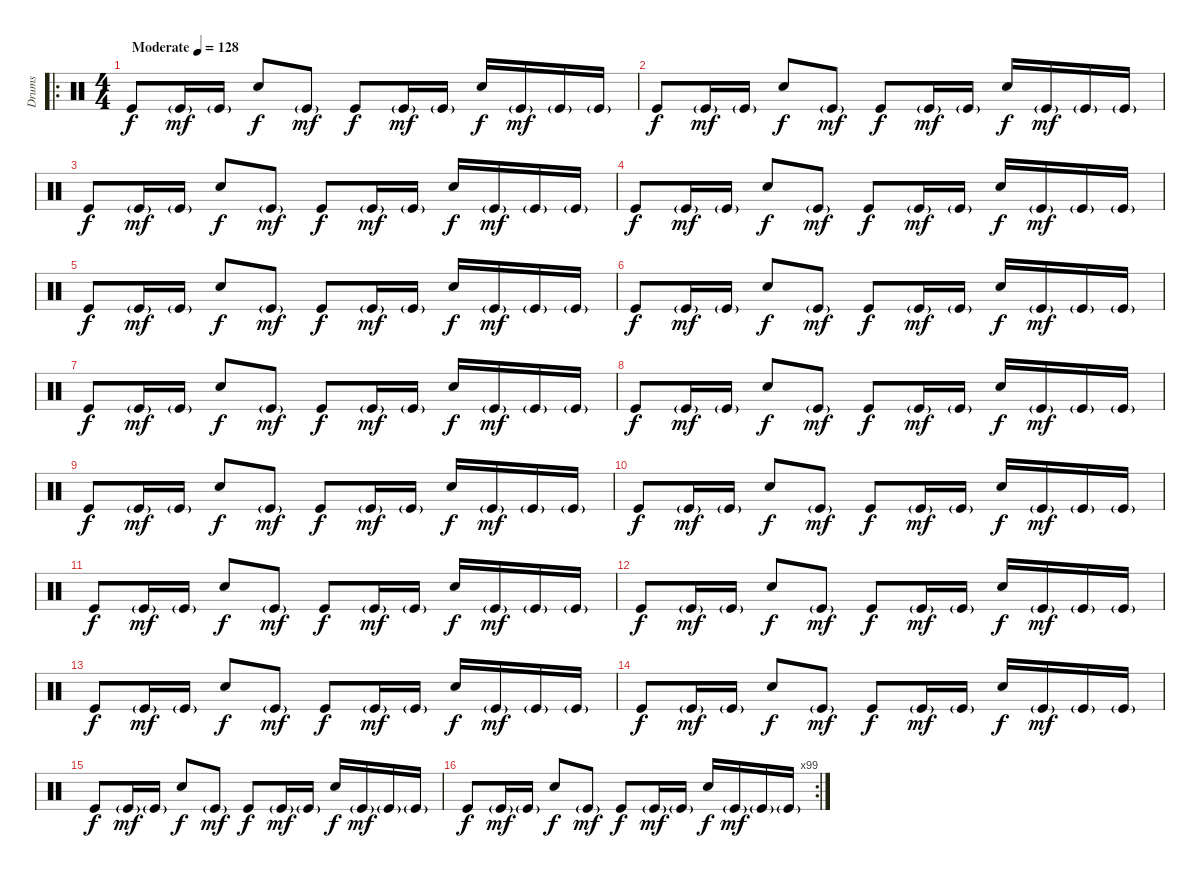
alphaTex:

\track ("Drums" "Drums") {instrument percussion}
\staff {score}
\articulation defaults
\ro
\ts (4 4)
\tempo (128 "Moderate")
\clef neutral
\ks c "Kick (hit)".8{dy f} "Kick (hit)"{g}.16{dy mf} "Kick (hit)"{g}.16 "Snare (hit) 2".8{dy f} "Kick (hit)"{g}.8{dy mf} "Kick (hit)".8{dy f} "Kick (hit)"{g}.16{dy mf} "Kick (hit)"{g}.16 "Snare (hit) 2".16{dy f} "Kick (hit)"{g}.16{dy mf} "Kick (hit)"{g}.16 "Kick (hit)"{g}.16
|
"Kick (hit)".8{dy f} "Kick (hit)"{g}.16{dy mf} "Kick (hit)"{g}.16 "Snare (hit) 2".8{dy f} "Kick (hit)"{g}.8{dy mf} "Kick (hit)".8{dy f} "Kick (hit)"{g}.16{dy mf} "Kick (hit)"{g}.16 "Snare (hit) 2".16{dy f} "Kick (hit)"{g}.16{dy mf} "Kick (hit)"{g}.16 "Kick (hit)"{g}.16 |
"Kick (hit)".8{dy f} "Kick (hit)"{g}.16{dy mf} "Kick (hit)"{g}.16 "Snare (hit) 2".8{dy f} "Kick (hit)"{g}.8{dy mf} "Kick (hit)".8{dy f} "Kick (hit)"{g}.16{dy mf} "Kick (hit)"{g}.16 "Snare (hit) 2".16{dy f} "Kick (hit)"{g}.16{dy mf} "Kick (hit)"{g}.16 "Kick (hit)"{g}.16 |
"Kick (hit)".8{dy f} "Kick (hit)"{g}.16{dy mf} "Kick (hit)"{g}.16 "Snare (hit) 2".8{dy f} "Kick (hit)"{g}.8{dy mf} "Kick (hit)".8{dy f} "Kick (hit)"{g}.16{dy mf} "Kick (hit)"{g}.16 "Snare (hit) 2".16{dy f} "Kick (hit)"{g}.16{dy mf} "Kick (hit)"{g}.16 "Kick (hit)"{g}.16 |
"Kick (hit)".8{dy f} "Kick (hit)"{g}.16{dy mf} "Kick (hit)"{g}.16 "Snare (hit) 2".8{dy f} "Kick (hit)"{g}.8{dy mf} "Kick (hit)".8{dy f} "Kick (hit)"{g}.16{dy mf} "Kick (hit)"{g}.16 "Snare (hit) 2".16{dy f} "Kick (hit)"{g}.16{dy mf} "Kick (hit)"{g}.16 "Kick (hit)"{g}.16 |
"Kick (hit)".8{dy f} "Kick (hit)"{g}.16{dy mf} "Kick (hit)"{g}.16 "Snare (hit) 2".8{dy f} "Kick (hit)"{g}.8{dy mf} "Kick (hit)".8{dy f} "Kick (hit)"{g}.16{dy mf} "Kick (hit)"{g}.16 "Snare (hit) 2".16{dy f} "Kick (hit)"{g}.16{dy mf} "Kick (hit)"{g}.16 "Kick (hit)"{g}.16 |
"Kick (hit)".8{dy f} "Kick (hit)"{g}.16{dy mf} "Kick (hit)"{g}.16 "Snare (hit) 2".8{dy f} "Kick (hit)"{g}.8{dy mf} "Kick (hit)".8{dy f} "Kick (hit)"{g}.16{dy mf} "Kick (hit)"{g}.16 "Snare (hit) 2".16{dy f} "Kick (hit)"{g}.16{dy mf} "Kick (hit)"{g}.16 "Kick (hit)"{g}.16 |
"Kick (hit)".8{dy f} "Kick (hit)"{g}.16{dy mf} "Kick (hit)"{g}.16 "Snare (hit) 2".8{dy f} "Kick (hit)"{g}.8{dy mf} "Kick (hit)".8{dy f} "Kick (hit)"{g}.16{dy mf} "Kick (hit)"{g}.16 "Snare (hit) 2".16{dy f} "Kick (hit)"{g}.16{dy mf} "Kick (hit)"{g}.16 "Kick (hit)"{g}.16 |
"Kick (hit)".8{dy f} "Kick (hit)"{g}.16{dy mf} "Kick (hit)"{g}.16 "Snare (hit) 2".8{dy f} "Kick (hit)"{g}.8{dy mf} "Kick (hit)".8{dy f} "Kick (hit)"{g}.16{dy mf} "Kick (hit)"{g}.16 "Snare (hit) 2".16{dy f} "Kick (hit)"{g}.16{dy mf} "Kick (hit)"{g}.16 "Kick (hit)"{g}.16 |
"Kick (hit)".8{dy f} "Kick (hit)"{g}.16{dy mf} "Kick (hit)"{g}.16 "Snare (hit) 2".8{dy f} "Kick (hit)"{g}.8{dy mf} "Kick (hit)".8{dy f} "Kick (hit)"{g}.16{dy mf} "Kick (hit)"{g}.16 "Snare (hit) 2".16{dy f} "Kick (hit)"{g}.16{dy mf} "Kick (hit)"{g}.16 "Kick (hit)"{g}.16 |
"Kick (hit)".8{dy f} "Kick (hit)"{g}.16{dy mf} "Kick (hit)"{g}.16 "Snare (hit) 2".8{dy f} "Kick (hit)"{g}.8{dy mf} "Kick (hit)".8{dy f} "Kick (hit)"{g}.16{dy mf} "Kick (hit)"{g}.16 "Snare (hit) 2".16{dy f} "Kick (hit)"{g}.16{dy mf} "Kick (hit)"{g}.16 "Kick (hit)"{g}.16 |
"Kick (hit)".8{dy f} "Kick (hit)"{g}.16{dy mf} "Kick (hit)"{g}.16 "Snare (hit) 2".8{dy f} "Kick (hit)"{g}.8{dy mf} "Kick (hit)".8{dy f} "Kick (hit)"{g}.16{dy mf} "Kick (hit)"{g}.16 "Snare (hit) 2".16{dy f} "Kick (hit)"{g}.16{dy mf} "Kick (hit)"{g}.16 "Kick (hit)"{g}.16 |
"Kick (hit)".8{dy f} "Kick (hit)"{g}.16{dy mf} "Kick (hit)"{g}.16 "Snare (hit) 2".8{dy f} "Kick (hit)"{g}.8{dy mf} "Kick (hit)".8{dy f} "Kick (hit)"{g}.16{dy mf} "Kick (hit)"{g}.16 "Snare (hit) 2".16{dy f} "Kick (hit)"{g}.16{dy mf} "Kick (hit)"{g}.16 "Kick (hit)"{g}.16 |
"Kick (hit)".8{dy f} "Kick (hit)"{g}.16{dy mf} "Kick (hit)"{g}.16 "Snare (hit) 2".8{dy f} "Kick (hit)"{g}.8{dy mf} "Kick (hit)".8{dy f} "Kick (hit)"{g}.16{dy mf} "Kick (hit)"{g}.16 "Snare (hit) 2".16{dy f} "Kick (hit)"{g}.16{dy mf} "Kick (hit)"{g}.16 "Kick (hit)"{g}.16 |
"Kick (hit)".8{dy f} "Kick (hit)"{g}.16{dy mf} "Kick (hit)"{g}.16 "Snare (hit) 2".8{dy f} "Kick (hit)"{g}.8{dy mf} "Kick (hit)".8{dy f} "Kick (hit)"{g}.16{dy mf} "Kick (hit)"{g}.16 "Snare (hit) 2".16{dy f} "Kick (hit)"{g}.16{dy mf} "Kick (hit)"{g}.16 "Kick (hit)"{g}.16 |
\rc 99 "Kick (hit)".8{dy f} "Kick (hit)"{g}.16{dy mf} "Kick (hit)"{g}.16 "Snare (hit) 2".8{dy f} "Kick (hit)"{g}.8{dy mf} "Kick (hit)".8{dy f} "Kick (hit)"{g}.16{dy mf} "Kick (hit)"{g}.16 "Snare (hit) 2".16{dy f} "Kick (hit)"{g}.16{dy mf} "Kick (hit)"{g}.16 "Kick (hit)"{g}.16
